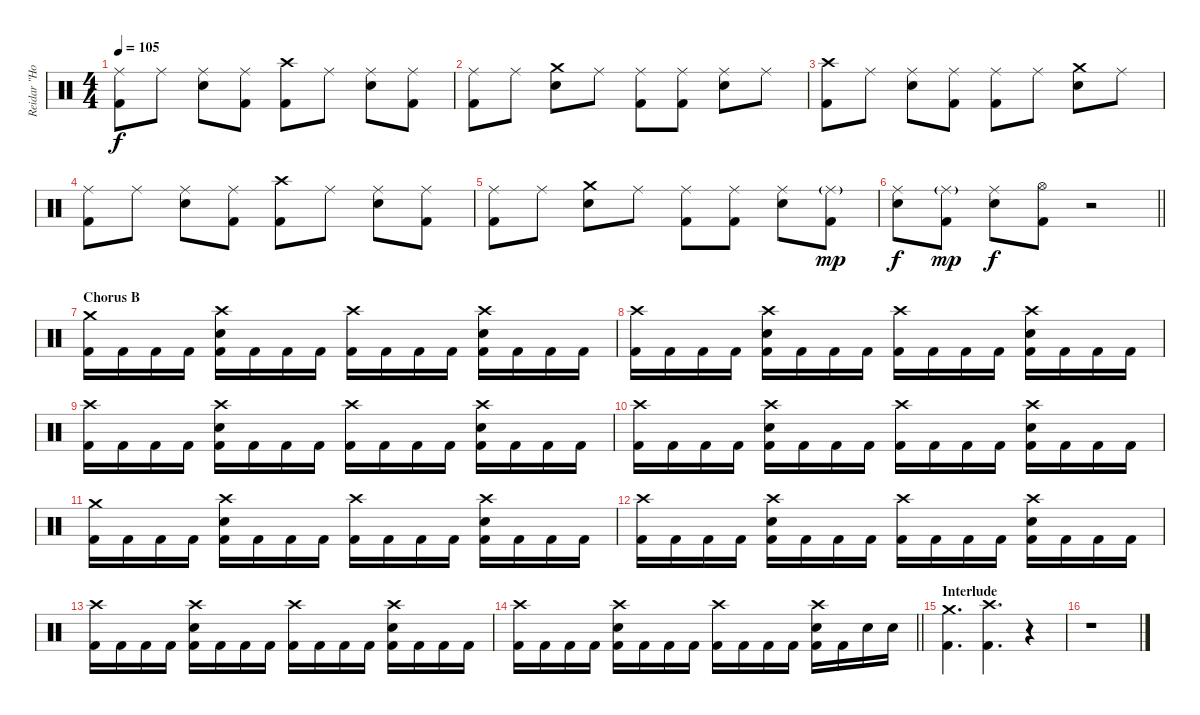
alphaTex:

\track ("Reidar \"Horgh\" Horghagen " "Reidar \"Ho") {instrument percussion}
\staff {score}
\articulation defaults
\ts (4 4)
\tempo 105
\clef neutral
\ks c
("Ride (middle)" "Kick (hit) 2").8{dy f} "Ride (middle)".8 ("Ride (middle)" "Snare (hit) 2").8 ("Ride (middle)" "Kick (hit) 2").8 ("Crash high (hit)" "Kick (hit) 2").8 "Ride (middle)".8 ("Ride (middle)" "Snare (hit) 2").8 ("Ride (middle)" "Kick (hit) 2").8 |
("Ride (middle)" "Kick (hit) 2").8 "Ride (middle)".8 ("Crash medium (hit)" "Snare (hit) 2").8 "Ride (middle)".8 ("Ride (middle)" "Kick (hit) 2").8 ("Ride (middle)" "Kick (hit) 2").8 ("Ride (middle)" "Snare (hit) 2").8 "Ride (middle)".8 |
("Crash high (hit)" "Kick (hit) 2").8 "Ride (middle)".8 ("Ride (middle)" "Snare (hit) 2").8 ("Ride (middle)" "Kick (hit) 2").8 ("Ride (middle)" "Kick (hit) 2").8 "Ride (middle)".8 ("Crash medium (hit)" "Snare (hit) 2").8 "Ride (middle)".8 |
("Ride (middle)" "Kick (hit) 2").8 "Ride (middle)".8 ("Ride (middle)" "Snare (hit) 2").8 ("Ride (middle)" "Kick (hit) 2").8 ("Crash high (hit)" "Kick (hit) 2").8 "Ride (middle)".8 ("Ride (middle)" "Snare (hit) 2").8 ("Ride (middle)" "Kick (hit) 2").8 |
("Ride (middle)" "Kick (hit) 2").8 "Ride (middle)".8 ("Crash medium (hit)" "Snare (hit) 2").8 "Ride (middle)".8 ("Ride (middle)" "Kick (hit) 2").8 ("Ride (middle)" "Kick (hit) 2").8 ("Ride (middle)" "Snare (hit) 2").8 ("Ride (middle)"{g} "Kick (hit) 2").8{dy mp} |
\barLineRight lightlight
("Ride (middle)" "Snare (hit) 2").8{dy f} ("Ride (middle)"{g} "Kick (hit) 2").8{dy mp} ("Ride (middle)" "Snare (hit) 2").8{dy f} ("Hi-Hat (open)" "Kick (hit) 2").8 r.2 |
\section ("" "Chorus B")
("Crash medium (hit)" "Kick (hit) 2").16 "Kick (hit) 2".16 "Kick (hit) 2".16 "Kick (hit) 2".16 ("Crash high (hit)" "Snare (hit) 2" "Kick (hit) 2").16 "Kick (hit) 2".16 "Kick (hit) 2".16 "Kick (hit) 2".16 ("Crash high (hit)" "Kick (hit) 2").16 "Kick (hit) 2".16 "Kick (hit) 2".16 "Kick (hit) 2".16 ("Crash high (hit)" "Snare (hit) 2" "Kick (hit) 2").16 "Kick (hit) 2".16 "Kick (hit) 2".16 "Kick (hit) 2".16 |
("Crash high (hit)" "Kick (hit) 2").16 "Kick (hit) 2".16 "Kick (hit) 2".16 "Kick (hit) 2".16 ("Crash high (hit)" "Snare (hit) 2" "Kick (hit) 2").16 "Kick (hit) 2".16 "Kick (hit) 2".16 "Kick (hit) 2".16 ("Crash high (hit)" "Kick (hit) 2").16 "Kick (hit) 2".16 "Kick (hit) 2".16 "Kick (hit) 2".16 ("Crash high (hit)" "Snare (hit) 2" "Kick (hit) 2").16 "Kick (hit) 2".16 "Kick (hit) 2".16 "Kick (hit) 2".16 |
("Crash high (hit)" "Kick (hit) 2").16 "Kick (hit) 2".16 "Kick (hit) 2".16 "Kick (hit) 2".16 ("Crash high (hit)" "Snare (hit) 2" "Kick (hit) 2").16 "Kick (hit) 2".16 "Kick (hit) 2".16 "Kick (hit) 2".16 ("Crash high (hit)" "Kick (hit) 2").16 "Kick (hit) 2".16 "Kick (hit) 2".16 "Kick (hit) 2".16 ("Crash high (hit)" "Snare (hit) 2" "Kick (hit) 2").16 "Kick (hit) 2".16 "Kick (hit) 2".16 "Kick (hit) 2".16 |
("Crash high (hit)" "Kick (hit) 2").16 "Kick (hit) 2".16 "Kick (hit) 2".16 "Kick (hit) 2".16 ("Crash high (hit)" "Snare (hit) 2" "Kick (hit) 2").16 "Kick (hit) 2".16 "Kick (hit) 2".16 "Kick (hit) 2".16 ("Crash high (hit)" "Kick (hit) 2").16 "Kick (hit) 2".16 "Kick (hit) 2".16 "Kick (hit) 2".16 ("Crash high (hit)" "Snare (hit) 2" "Kick (hit) 2").16 "Kick (hit) 2".16 "Kick (hit) 2".16 "Kick (hit) 2".16 |
("Crash medium (hit)" "Kick (hit) 2").16 "Kick (hit) 2".16 "Kick (hit) 2".16 "Kick (hit) 2".16 ("Crash high (hit)" "Snare (hit) 2" "Kick (hit) 2").16 "Kick (hit) 2".16 "Kick (hit) 2".16 "Kick (hit) 2".16 ("Crash high (hit)" "Kick (hit) 2").16 "Kick (hit) 2".16 "Kick (hit) 2".16 "Kick (hit) 2".16 ("Crash high (hit)" "Snare (hit) 2" "Kick (hit) 2").16 "Kick (hit) 2".16 "Kick (hit) 2".16 "Kick (hit) 2".16 |
("Crash high (hit)" "Kick (hit) 2").16 "Kick (hit) 2".16 "Kick (hit) 2".16 "Kick (hit) 2".16 ("Crash high (hit)" "Snare (hit) 2" "Kick (hit) 2").16 "Kick (hit) 2".16 "Kick (hit) 2".16 "Kick (hit) 2".16 ("Crash high (hit)" "Kick (hit) 2").16 "Kick (hit) 2".16 "Kick (hit) 2".16 "Kick (hit) 2".16 ("Crash high (hit)" "Snare (hit) 2" "Kick (hit) 2").16 "Kick (hit) 2".16 "Kick (hit) 2".16 "Kick (hit) 2".16 |
("Crash high (hit)" "Kick (hit) 2").16 "Kick (hit) 2".16 "Kick (hit) 2".16 "Kick (hit) 2".16 ("Crash high (hit)" "Snare (hit) 2" "Kick (hit) 2").16 "Kick (hit) 2".16 "Kick (hit) 2".16 "Kick (hit) 2".16 ("Crash high (hit)" "Kick (hit) 2").16 "Kick (hit) 2".16 "Kick (hit) 2".16 "Kick (hit) 2".16 ("Crash high (hit)" "Snare (hit) 2" "Kick (hit) 2").16 "Kick (hit) 2".16 "Kick (hit) 2".16 "Kick (hit) 2".16 |
\barLineRight lightlight
("Crash high (hit)" "Kick (hit) 2").16 "Kick (hit) 2".16 "Kick (hit) 2".16 "Kick (hit) 2".16 ("Crash high (hit)" "Snare (hit) 2" "Kick (hit) 2").16 "Kick (hit) 2".16 "Kick (hit) 2".16 "Kick (hit) 2".16 ("Crash high (hit)" "Kick (hit) 2").16 "Kick (hit) 2".16 "Kick (hit) 2".16 "Kick (hit) 2".16 ("Crash high (hit)" "Snare (hit) 2" "Kick (hit) 2").16 "Kick (hit) 2".16 "Snare (hit) 2".16 "Snare (hit) 2".16 |
\section ("" "Interlude")
("Crash medium (hit)" "Kick (hit) 2").4{d} ("Crash high (hit)" "Kick (hit) 2").4{d} r.4 |
r.1
